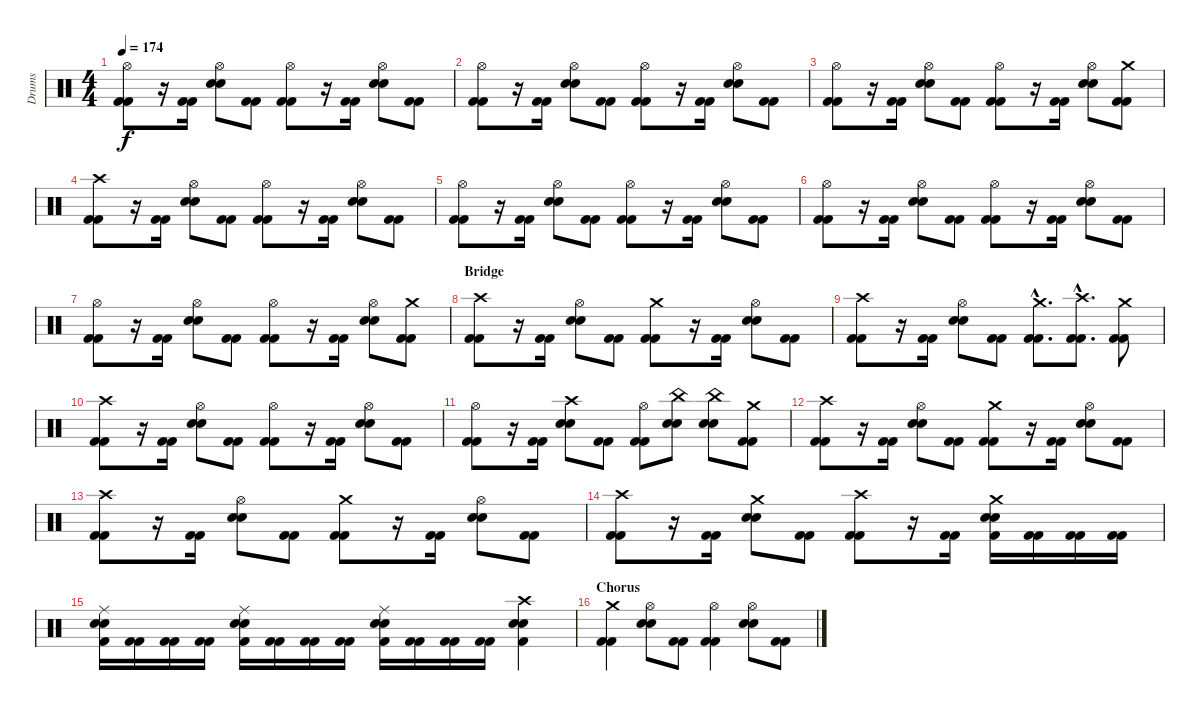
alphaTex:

\track ("Drums" "Drums") {instrument percussion}
\staff {score}
\articulation defaults
\ts (4 4)
\tempo 174
\clef neutral
\ks c
("Hi-Hat (open)" "Kick (hit) 2" "Kick (hit) 2").8{dy f} r.16 ("Kick (hit) 2" "Kick (hit) 2").16 ("Hi-Hat (open)" "Snare (hit) 2" "Snare (hit) 2").8 ("Kick (hit) 2" "Kick (hit) 2").8 ("Hi-Hat (open)" "Kick (hit) 2" "Kick (hit) 2").8 r.16 ("Kick (hit) 2" "Kick (hit) 2").16 ("Hi-Hat (open)" "Snare (hit) 2" "Snare (hit) 2").8 ("Kick (hit) 2" "Kick (hit) 2").8 |
("Hi-Hat (open)" "Kick (hit) 2" "Kick (hit) 2").8 r.16 ("Kick (hit) 2" "Kick (hit) 2").16 ("Hi-Hat (open)" "Snare (hit) 2" "Snare (hit) 2").8 ("Kick (hit) 2" "Kick (hit) 2").8 ("Hi-Hat (open)" "Kick (hit) 2" "Kick (hit) 2").8 r.16 ("Kick (hit) 2" "Kick (hit) 2").16 ("Hi-Hat (open)" "Snare (hit) 2" "Snare (hit) 2").8 ("Kick (hit) 2" "Kick (hit) 2").8 |
("Hi-Hat (open)" "Kick (hit) 2" "Kick (hit) 2").8 r.16 ("Kick (hit) 2" "Kick (hit) 2").16 ("Hi-Hat (open)" "Snare (hit) 2" "Snare (hit) 2").8 ("Kick (hit) 2" "Kick (hit) 2").8 ("Hi-Hat (open)" "Kick (hit) 2" "Kick (hit) 2").8 r.16 ("Kick (hit) 2" "Kick (hit) 2").16 ("Hi-Hat (open)" "Snare (hit) 2" "Snare (hit) 2").8 ("Crash medium (hit)" "Kick (hit) 2" "Kick (hit) 2").8 |
("Crash high (hit)" "Kick (hit) 2" "Kick (hit) 2").8 r.16 ("Kick (hit) 2" "Kick (hit) 2").16 ("Hi-Hat (open)" "Snare (hit) 2" "Snare (hit) 2").8 ("Kick (hit) 2" "Kick (hit) 2").8 ("Hi-Hat (open)" "Kick (hit) 2" "Kick (hit) 2").8 r.16 ("Kick (hit) 2" "Kick (hit) 2").16 ("Hi-Hat (open)" "Snare (hit) 2" "Snare (hit) 2").8 ("Kick (hit) 2" "Kick (hit) 2").8 |
("Hi-Hat (open)" "Kick (hit) 2" "Kick (hit) 2").8 r.16 ("Kick (hit) 2" "Kick (hit) 2").16 ("Hi-Hat (open)" "Snare (hit) 2" "Snare (hit) 2").8 ("Kick (hit) 2" "Kick (hit) 2").8 ("Hi-Hat (open)" "Kick (hit) 2" "Kick (hit) 2").8 r.16 ("Kick (hit) 2" "Kick (hit) 2").16 ("Hi-Hat (open)" "Snare (hit) 2" "Snare (hit) 2").8 ("Kick (hit) 2" "Kick (hit) 2").8 |
("Hi-Hat (open)" "Kick (hit) 2" "Kick (hit) 2").8 r.16 ("Kick (hit) 2" "Kick (hit) 2").16 ("Hi-Hat (open)" "Snare (hit) 2" "Snare (hit) 2").8 ("Kick (hit) 2" "Kick (hit) 2").8 ("Hi-Hat (open)" "Kick (hit) 2" "Kick (hit) 2").8 r.16 ("Kick (hit) 2" "Kick (hit) 2").16 ("Hi-Hat (open)" "Snare (hit) 2" "Snare (hit) 2").8 ("Kick (hit) 2" "Kick (hit) 2").8 |
("Hi-Hat (open)" "Kick (hit) 2" "Kick (hit) 2").8 r.16 ("Kick (hit) 2" "Kick (hit) 2").16 ("Hi-Hat (open)" "Snare (hit) 2" "Snare (hit) 2").8 ("Kick (hit) 2" "Kick (hit) 2").8 ("Hi-Hat (open)" "Kick (hit) 2" "Kick (hit) 2").8 r.16 ("Kick (hit) 2" "Kick (hit) 2").16 ("Hi-Hat (open)" "Snare (hit) 2" "Snare (hit) 2").8 ("Crash medium (hit)" "Kick (hit) 2" "Kick (hit) 2").8 |
\section ("" "Bridge")
("Crash high (hit)" "Kick (hit) 2" "Kick (hit) 2").8 r.16 ("Kick (hit) 2" "Kick (hit) 2").16 ("Hi-Hat (open)" "Snare (hit) 2" "Snare (hit) 2").8 ("Kick (hit) 2" "Kick (hit) 2").8 ("Crash medium (hit)" "Kick (hit) 2" "Kick (hit) 2").8 r.16 ("Kick (hit) 2" "Kick (hit) 2").16 ("Hi-Hat (open)" "Snare (hit) 2" "Snare (hit) 2").8 ("Kick (hit) 2" "Kick (hit) 2").8 |
("Crash high (hit)" "Kick (hit) 2" "Kick (hit) 2").8 r.16 ("Kick (hit) 2" "Kick (hit) 2").16 ("Hi-Hat (open)" "Snare (hit) 2" "Snare (hit) 2").8 ("Kick (hit) 2" "Kick (hit) 2").8 ("Crash medium (hit)"{hac} "Kick (hit) 2"{hac} "Kick (hit) 2"{hac}).8{d} ("Crash high (hit)"{hac} "Kick (hit) 2"{hac} "Kick (hit) 2"{hac}).8{d} ("Crash medium (hit)" "Kick (hit) 2" "Kick (hit) 2").8 |
("Crash high (hit)" "Kick (hit) 2" "Kick (hit) 2").8 r.16 ("Kick (hit) 2" "Kick (hit) 2").16 ("Hi-Hat (open)" "Snare (hit) 2" "Snare (hit) 2").8 ("Kick (hit) 2" "Kick (hit) 2").8 ("Hi-Hat (open)" "Kick (hit) 2" "Kick (hit) 2").8 r.16 ("Kick (hit) 2" "Kick (hit) 2").16 ("Hi-Hat (open)" "Snare (hit) 2" "Snare (hit) 2").8 ("Kick (hit) 2" "Kick (hit) 2").8 |
("Hi-Hat (open)" "Kick (hit) 2" "Kick (hit) 2").8 r.16 ("Kick (hit) 2" "Kick (hit) 2").16 ("Crash high (hit)" "Snare (hit) 2" "Snare (hit) 2").8 ("Kick (hit) 2" "Kick (hit) 2").8 ("Hi-Hat (open)" "Kick (hit) 2" "Kick (hit) 2").8 ("China (hit)" "Snare (hit) 2" "Snare (hit) 2").8 ("China (hit)" "Snare (hit) 2" "Snare (hit) 2").8 ("Crash medium (hit)" "Kick (hit) 2" "Kick (hit) 2").8 |
("Crash high (hit)" "Kick (hit) 2" "Kick (hit) 2").8 r.16 ("Kick (hit) 2" "Kick (hit) 2").16 ("Hi-Hat (open)" "Snare (hit) 2" "Snare (hit) 2").8 ("Kick (hit) 2" "Kick (hit) 2").8 ("Crash medium (hit)" "Kick (hit) 2" "Kick (hit) 2").8 r.16 ("Kick (hit) 2" "Kick (hit) 2").16 ("Hi-Hat (open)" "Snare (hit) 2" "Snare (hit) 2").8 ("Kick (hit) 2" "Kick (hit) 2").8 |
("Crash high (hit)" "Kick (hit) 2" "Kick (hit) 2").8 r.16 ("Kick (hit) 2" "Kick (hit) 2").16 ("Hi-Hat (open)" "Snare (hit) 2" "Snare (hit) 2").8 ("Kick (hit) 2" "Kick (hit) 2").8 ("Crash medium (hit)" "Kick (hit) 2" "Kick (hit) 2").8 r.16 ("Kick (hit) 2" "Kick (hit) 2").16 ("Hi-Hat (open)" "Snare (hit) 2" "Snare (hit) 2").8 ("Kick (hit) 2" "Kick (hit) 2").8 |
("Crash high (hit)" "Kick (hit) 2" "Kick (hit) 2").8 r.16 ("Kick (hit) 2" "Kick (hit) 2").16 ("Crash medium (hit)" "Snare (hit) 2" "Snare (hit) 2").8 ("Kick (hit) 2" "Kick (hit) 2").8 ("Crash high (hit)" "Kick (hit) 2" "Kick (hit) 2").8 r.16 ("Kick (hit) 2" "Kick (hit) 2").16 ("Crash medium (hit)" "Snare (hit) 2" "Snare (hit) 2" "Kick (hit) 2").16 ("Kick (hit) 2" "Kick (hit) 2").16 ("Kick (hit) 2" "Kick (hit) 2").16 ("Kick (hit) 2" "Kick (hit) 2").16 |
("Ride (middle)" "Snare (hit) 2" "Snare (hit) 2" "Kick (hit) 2").16 ("Kick (hit) 2" "Kick (hit) 2").16 ("Kick (hit) 2" "Kick (hit) 2").16 ("Kick (hit) 2" "Kick (hit) 2").16 ("Ride (middle)" "Snare (hit) 2" "Snare (hit) 2" "Kick (hit) 2").16 ("Kick (hit) 2" "Kick (hit) 2").16 ("Kick (hit) 2" "Kick (hit) 2").16 ("Kick (hit) 2" "Kick (hit) 2").16 ("Ride (middle)" "Snare (hit) 2" "Snare (hit) 2" "Kick (hit) 2").16 ("Kick (hit) 2" "Kick (hit) 2").16 ("Kick (hit) 2" "Kick (hit) 2").16 ("Kick (hit) 2" "Kick (hit) 2").16 ("Crash high (hit)" "Snare (hit) 2" "Snare (hit) 2" "Kick (hit) 2").4 |
\section ("" "Chorus")
("Crash medium (hit)" "Kick (hit) 2" "Kick (hit) 2").4 ("Hi-Hat (open)" "Snare (hit) 2" "Snare (hit) 2").8 ("Kick (hit) 2" "Kick (hit) 2").8 ("Hi-Hat (open)" "Kick (hit) 2" "Kick (hit) 2").4 ("Hi-Hat (open)" "Snare (hit) 2" "Snare (hit) 2").8 ("Kick (hit) 2" "Kick (hit) 2").8
